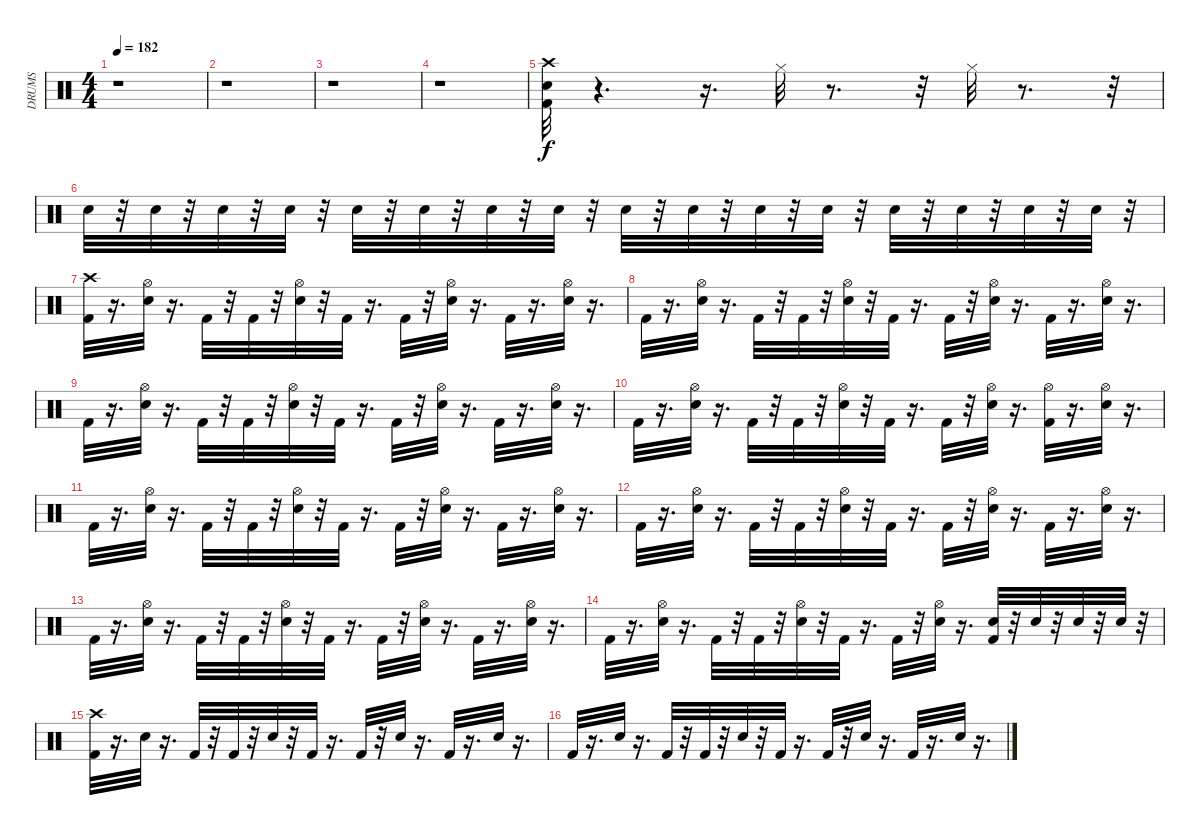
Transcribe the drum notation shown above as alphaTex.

\track ("DRUMS" "DRUMS") {instrument percussion}
\staff {score}
\articulation defaults
\ts (4 4)
\tempo 182
\clef neutral
\ks c
r.1{dy f} |
r.1 |
r.1 |
r.1 |
("Crash high (hit)" "Kick (hit) 2" "Electric Snare (hit)").32 r.4{d} r.16{d} "Hi-Hat (closed)".32 r.8{d} r.32 "Hi-Hat (closed)".32 r.8{d} r.32 |
"Electric Snare (hit)".32 r.32 "Electric Snare (hit)".32 r.32 "Electric Snare (hit)".32 r.32 "Electric Snare (hit)".32 r.32 "Electric Snare (hit)".32 r.32 "Electric Snare (hit)".32 r.32 "Electric Snare (hit)".32 r.32 "Electric Snare (hit)".32 r.32 "Electric Snare (hit)".32 r.32 "Electric Snare (hit)".32 r.32 "Electric Snare (hit)".32 r.32 "Electric Snare (hit)".32 r.32 "Electric Snare (hit)".32 r.32 "Electric Snare (hit)".32 r.32 "Electric Snare (hit)".32 r.32 "Electric Snare (hit)".32 r.32 |
("Kick (hit) 2" "Crash high (hit)").32 r.16{d} ("Electric Snare (hit)" "Hi-Hat (open)").32 r.16{d} "Kick (hit) 2".32 r.32 "Kick (hit) 2".32 r.32 ("Electric Snare (hit)" "Hi-Hat (open)").32 r.32 "Kick (hit) 2".32 r.16{d} "Kick (hit) 2".32 r.32 ("Electric Snare (hit)" "Hi-Hat (open)").32 r.16{d} "Kick (hit) 2".32 r.16{d} ("Electric Snare (hit)" "Hi-Hat (open)").32 r.16{d} |
"Kick (hit) 2".32 r.16{d} ("Electric Snare (hit)" "Hi-Hat (open)").32 r.16{d} "Kick (hit) 2".32 r.32 "Kick (hit) 2".32 r.32 ("Electric Snare (hit)" "Hi-Hat (open)").32 r.32 "Kick (hit) 2".32 r.16{d} "Kick (hit) 2".32 r.32 ("Electric Snare (hit)" "Hi-Hat (open)").32 r.16{d} "Kick (hit) 2".32 r.16{d} ("Electric Snare (hit)" "Hi-Hat (open)").32 r.16{d} |
"Kick (hit) 2".32 r.16{d} ("Electric Snare (hit)" "Hi-Hat (open)").32 r.16{d} "Kick (hit) 2".32 r.32 "Kick (hit) 2".32 r.32 ("Electric Snare (hit)" "Hi-Hat (open)").32 r.32 "Kick (hit) 2".32 r.16{d} "Kick (hit) 2".32 r.32 ("Electric Snare (hit)" "Hi-Hat (open)").32 r.16{d} "Kick (hit) 2".32 r.16{d} ("Electric Snare (hit)" "Hi-Hat (open)").32 r.16{d} |
"Kick (hit) 2".32 r.16{d} ("Electric Snare (hit)" "Hi-Hat (open)").32 r.16{d} "Kick (hit) 2".32 r.32 "Kick (hit) 2".32 r.32 ("Electric Snare (hit)" "Hi-Hat (open)").32 r.32 "Kick (hit) 2".32 r.16{d} "Kick (hit) 2".32 r.32 ("Electric Snare (hit)" "Hi-Hat (open)").32 r.16{d} ("Kick (hit) 2" "Hi-Hat (open)").32 r.16{d} ("Electric Snare (hit)" "Hi-Hat (open)").32 r.16{d} |
"Kick (hit) 2".32 r.16{d} ("Electric Snare (hit)" "Hi-Hat (open)").32 r.16{d} "Kick (hit) 2".32 r.32 "Kick (hit) 2".32 r.32 ("Electric Snare (hit)" "Hi-Hat (open)").32 r.32 "Kick (hit) 2".32 r.16{d} "Kick (hit) 2".32 r.32 ("Electric Snare (hit)" "Hi-Hat (open)").32 r.16{d} "Kick (hit) 2".32 r.16{d} ("Electric Snare (hit)" "Hi-Hat (open)").32 r.16{d} |
"Kick (hit) 2".32 r.16{d} ("Electric Snare (hit)" "Hi-Hat (open)").32 r.16{d} "Kick (hit) 2".32 r.32 "Kick (hit) 2".32 r.32 ("Electric Snare (hit)" "Hi-Hat (open)").32 r.32 "Kick (hit) 2".32 r.16{d} "Kick (hit) 2".32 r.32 ("Electric Snare (hit)" "Hi-Hat (open)").32 r.16{d} "Kick (hit) 2".32 r.16{d} ("Electric Snare (hit)" "Hi-Hat (open)").32 r.16{d} |
"Kick (hit) 2".32 r.16{d} ("Electric Snare (hit)" "Hi-Hat (open)").32 r.16{d} "Kick (hit) 2".32 r.32 "Kick (hit) 2".32 r.32 ("Electric Snare (hit)" "Hi-Hat (open)").32 r.32 "Kick (hit) 2".32 r.16{d} "Kick (hit) 2".32 r.32 ("Electric Snare (hit)" "Hi-Hat (open)").32 r.16{d} "Kick (hit) 2".32 r.16{d} ("Electric Snare (hit)" "Hi-Hat (open)").32 r.16{d} |
"Kick (hit) 2".32 r.16{d} ("Electric Snare (hit)" "Hi-Hat (open)").32 r.16{d} "Kick (hit) 2".32 r.32 "Kick (hit) 2".32 r.32 ("Electric Snare (hit)" "Hi-Hat (open)").32 r.32 "Kick (hit) 2".32 r.16{d} "Kick (hit) 2".32 r.32 ("Electric Snare (hit)" "Hi-Hat (open)").32 r.16{d} ("Kick (hit) 2" "Electric Snare (hit)").32 r.32 "Electric Snare (hit)".32 r.32 "Electric Snare (hit)".32 r.32 "Electric Snare (hit)".32 r.32 |
("Kick (hit) 2" "Crash high (hit)").32 r.16{d} "Electric Snare (hit)".32 r.16{d} "Kick (hit) 2".32 r.32 "Kick (hit) 2".32 r.32 "Electric Snare (hit)".32 r.32 "Kick (hit) 2".32 r.16{d} "Kick (hit) 2".32 r.32 "Electric Snare (hit)".32 r.16{d} "Kick (hit) 2".32 r.16{d} "Electric Snare (hit)".32 r.16{d} |
"Kick (hit) 2".32 r.16{d} "Electric Snare (hit)".32 r.16{d} "Kick (hit) 2".32 r.32 "Kick (hit) 2".32 r.32 "Electric Snare (hit)".32 r.32 "Kick (hit) 2".32 r.16{d} "Kick (hit) 2".32 r.32 "Electric Snare (hit)".32 r.16{d} "Kick (hit) 2".32 r.16{d} "Electric Snare (hit)".32 r.16{d}
